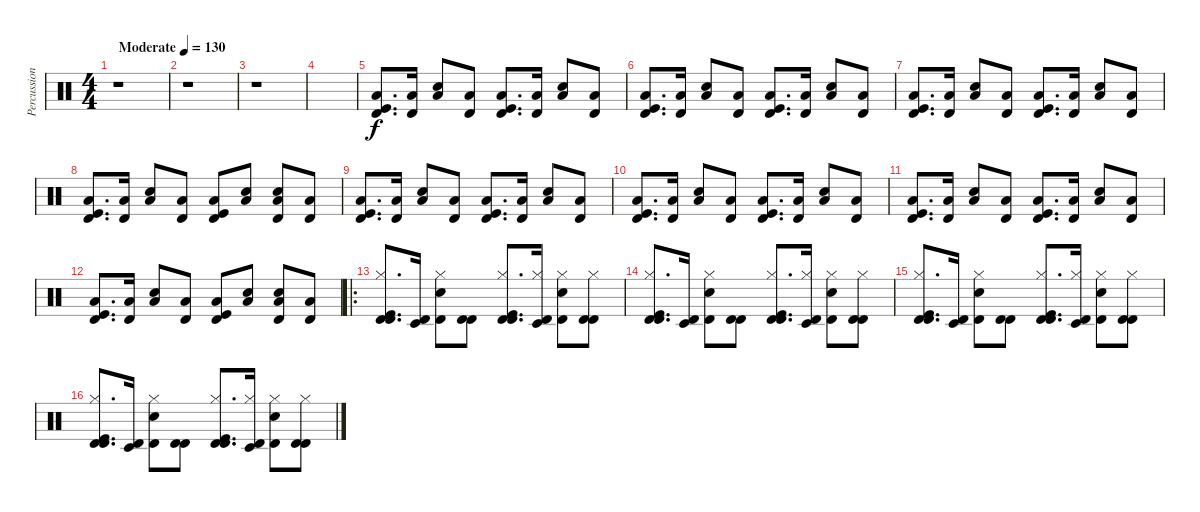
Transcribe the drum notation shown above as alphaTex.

\track ("Percussion" "Percussion") {instrument percussion}
\staff {score}
\articulation defaults
\ts (4 4)
\tempo (130 "Moderate")
\clef neutral
\ks c
r.1{dy f} |
r.1 |
r.1 |
|
("Low Tom (hit)" "Timbale high (hit)" "Kick (hit)").8{d} ("Low Tom (hit)" "Timbale high (hit)").16 ("Low Tom (hit)" "Hand Clap (hit)").8 ("Low Tom (hit)" "Timbale high (hit)").8 ("Low Tom (hit)" "Timbale high (hit)" "Kick (hit)").8{d} ("Low Tom (hit)" "Timbale high (hit)").16 ("Low Tom (hit)" "Hand Clap (hit)").8 ("Low Tom (hit)" "Timbale high (hit)").8 |
("Low Tom (hit)" "Timbale high (hit)" "Kick (hit)").8{d} ("Low Tom (hit)" "Timbale high (hit)").16 ("Low Tom (hit)" "Hand Clap (hit)").8 ("Low Tom (hit)" "Timbale high (hit)").8 ("Low Tom (hit)" "Timbale high (hit)" "Kick (hit)").8{d} ("Low Tom (hit)" "Timbale high (hit)").16 ("Low Tom (hit)" "Hand Clap (hit)").8 ("Low Tom (hit)" "Timbale high (hit)").8 |
("Low Tom (hit)" "Timbale high (hit)" "Kick (hit)").8{d} ("Low Tom (hit)" "Timbale high (hit)").16 ("Low Tom (hit)" "Hand Clap (hit)").8 ("Low Tom (hit)" "Timbale high (hit)").8 ("Low Tom (hit)" "Timbale high (hit)" "Kick (hit)").8{d} ("Low Tom (hit)" "Timbale high (hit)").16 ("Low Tom (hit)" "Hand Clap (hit)").8 ("Low Tom (hit)" "Timbale high (hit)").8 |
("Low Tom (hit)" "Timbale high (hit)" "Kick (hit)").8{d} ("Low Tom (hit)" "Timbale high (hit)").16 ("Low Tom (hit)" "Hand Clap (hit)").8 ("Low Tom (hit)" "Timbale high (hit)").8 ("Low Tom (hit)" "Timbale high (hit)" "Kick (hit)").8 ("Low Tom (hit)" "Hand Clap (hit)").8 ("Low Tom (hit)" "Timbale high (hit)" "Hand Clap (hit)").8 ("Low Tom (hit)" "Timbale high (hit)").8 |
("Low Tom (hit)" "Timbale high (hit)" "Kick (hit)").8{d} ("Low Tom (hit)" "Timbale high (hit)").16 ("Low Tom (hit)" "Hand Clap (hit)").8 ("Low Tom (hit)" "Timbale high (hit)").8 ("Low Tom (hit)" "Timbale high (hit)" "Kick (hit)").8{d} ("Low Tom (hit)" "Timbale high (hit)").16 ("Low Tom (hit)" "Hand Clap (hit)").8 ("Low Tom (hit)" "Timbale high (hit)").8 |
("Low Tom (hit)" "Timbale high (hit)" "Kick (hit)").8{d} ("Low Tom (hit)" "Timbale high (hit)").16 ("Low Tom (hit)" "Hand Clap (hit)").8 ("Low Tom (hit)" "Timbale high (hit)").8 ("Low Tom (hit)" "Timbale high (hit)" "Kick (hit)").8{d} ("Low Tom (hit)" "Timbale high (hit)").16 ("Low Tom (hit)" "Hand Clap (hit)").8 ("Low Tom (hit)" "Timbale high (hit)").8 |
("Low Tom (hit)" "Timbale high (hit)" "Kick (hit)").8{d} ("Low Tom (hit)" "Timbale high (hit)").16 ("Low Tom (hit)" "Hand Clap (hit)").8 ("Low Tom (hit)" "Timbale high (hit)").8 ("Low Tom (hit)" "Timbale high (hit)" "Kick (hit)").8{d} ("Low Tom (hit)" "Timbale high (hit)").16 ("Low Tom (hit)" "Hand Clap (hit)").8 ("Low Tom (hit)" "Timbale high (hit)").8 |
("Low Tom (hit)" "Timbale high (hit)" "Kick (hit)").8{d} ("Low Tom (hit)" "Timbale high (hit)").16 ("Low Tom (hit)" "Hand Clap (hit)").8 ("Low Tom (hit)" "Timbale high (hit)").8 ("Low Tom (hit)" "Timbale high (hit)" "Kick (hit)").8 ("Low Tom (hit)" "Hand Clap (hit)").8 ("Low Tom (hit)" "Timbale high (hit)" "Hand Clap (hit)").8 ("Low Tom (hit)" "Timbale high (hit)").8 |
\ro
("Timbale high (hit)" "Hi-Hat (closed)" "Timbale high (hit)" "Kick (hit)").8{d} ("Timbale low (hit)" "Timbale high (hit)").16 ("Timbale high (hit)" "Hi-Hat (closed)" "Hand Clap (hit)").8 ("Timbale high (hit)" "Timbale high (hit)").8 ("Timbale high (hit)" "Hi-Hat (closed)" "Timbale high (hit)" "Kick (hit)").8{d} ("Timbale low (hit)" "Hi-Hat (closed)" "Timbale high (hit)").16 ("Timbale high (hit)" "Hi-Hat (closed)" "Hand Clap (hit)").8 ("Timbale high (hit)" "Hi-Hat (closed)" "Timbale high (hit)").8 |
("Timbale high (hit)" "Hi-Hat (closed)" "Timbale high (hit)" "Kick (hit)").8{d} ("Timbale low (hit)" "Timbale high (hit)").16 ("Timbale high (hit)" "Hi-Hat (closed)" "Hand Clap (hit)").8 ("Timbale high (hit)" "Timbale high (hit)").8 ("Timbale high (hit)" "Hi-Hat (closed)" "Timbale high (hit)" "Kick (hit)").8{d} ("Timbale low (hit)" "Hi-Hat (closed)" "Timbale high (hit)").16 ("Timbale high (hit)" "Hi-Hat (closed)" "Hand Clap (hit)").8 ("Timbale high (hit)" "Hi-Hat (closed)" "Timbale high (hit)").8 |
("Timbale high (hit)" "Hi-Hat (closed)" "Timbale high (hit)" "Kick (hit)").8{d} ("Timbale low (hit)" "Timbale high (hit)").16 ("Timbale high (hit)" "Hi-Hat (closed)" "Hand Clap (hit)").8 ("Timbale high (hit)" "Timbale high (hit)").8 ("Timbale high (hit)" "Hi-Hat (closed)" "Timbale high (hit)" "Kick (hit)").8{d} ("Timbale low (hit)" "Hi-Hat (closed)" "Timbale high (hit)").16 ("Timbale high (hit)" "Hi-Hat (closed)" "Hand Clap (hit)").8 ("Timbale high (hit)" "Hi-Hat (closed)" "Timbale high (hit)").8 |
("Timbale high (hit)" "Hi-Hat (closed)" "Timbale high (hit)" "Kick (hit)").8{d} ("Timbale low (hit)" "Timbale high (hit)").16 ("Timbale high (hit)" "Hi-Hat (closed)" "Hand Clap (hit)").8 ("Timbale high (hit)" "Timbale high (hit)").8 ("Timbale high (hit)" "Hi-Hat (closed)" "Timbale high (hit)" "Kick (hit)").8{d} ("Timbale low (hit)" "Hi-Hat (closed)" "Timbale high (hit)").16 ("Timbale high (hit)" "Hi-Hat (closed)" "Hand Clap (hit)").8 ("Timbale high (hit)" "Hi-Hat (closed)" "Timbale high (hit)").8
